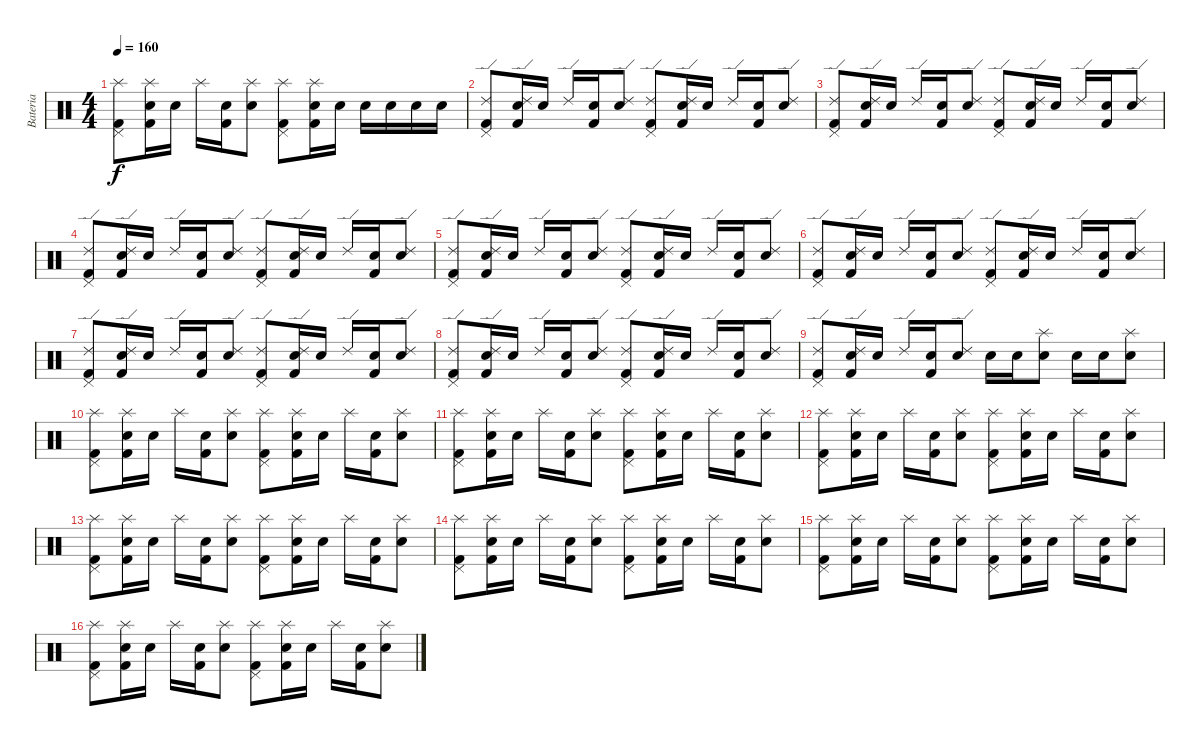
\track ("Bateria" "Bateria") {instrument percussion}
\staff {score}
\articulation defaults
\ts (4 4)
\tempo 160
\clef neutral
\ks c
("Splash (hit)" "Pedal Hi-Hat (hit)" "Kick (hit) 2").8{dy f} ("Splash (hit)" "Snare (hit) 2" "Kick (hit) 2").16 "Snare (hit) 2".16 "Splash (hit)".16 ("Snare (hit) 2" "Kick (hit) 2").16 ("Splash (hit)" "Snare (hit) 2").8 ("Splash (hit)" "Pedal Hi-Hat (hit)" "Kick (hit) 2").8 ("Splash (hit)" "Snare (hit) 2" "Kick (hit) 2").16 "Snare (hit) 2".16 "Snare (hit) 2".16 "Snare (hit) 2".16 "Snare (hit) 2".16 "Snare (hit) 2".16 |
("Ride (edge) 2" "Pedal Hi-Hat (hit)" "Kick (hit) 2").8 ("Ride (edge) 2" "Snare (hit) 2" "Kick (hit) 2").16 "Snare (hit) 2".16 "Ride (edge) 2".16 ("Snare (hit) 2" "Kick (hit) 2").16 ("Ride (edge) 2" "Snare (hit) 2").8 ("Ride (edge) 2" "Pedal Hi-Hat (hit)" "Kick (hit) 2").8 ("Ride (edge) 2" "Snare (hit) 2" "Kick (hit) 2").16 "Snare (hit) 2".16 "Ride (edge) 2".16 ("Snare (hit) 2" "Kick (hit) 2").16 ("Ride (edge) 2" "Snare (hit) 2").8 |
("Ride (edge) 2" "Pedal Hi-Hat (hit)" "Kick (hit) 2").8 ("Ride (edge) 2" "Snare (hit) 2" "Kick (hit) 2").16 "Snare (hit) 2".16 "Ride (edge) 2".16 ("Snare (hit) 2" "Kick (hit) 2").16 ("Ride (edge) 2" "Snare (hit) 2").8 ("Ride (edge) 2" "Pedal Hi-Hat (hit)" "Kick (hit) 2").8 ("Ride (edge) 2" "Snare (hit) 2" "Kick (hit) 2").16 "Snare (hit) 2".16 "Ride (edge) 2".16 ("Snare (hit) 2" "Kick (hit) 2").16 ("Ride (edge) 2" "Snare (hit) 2").8 |
("Ride (edge) 2" "Pedal Hi-Hat (hit)" "Kick (hit) 2").8 ("Ride (edge) 2" "Snare (hit) 2" "Kick (hit) 2").16 "Snare (hit) 2".16 "Ride (edge) 2".16 ("Snare (hit) 2" "Kick (hit) 2").16 ("Ride (edge) 2" "Snare (hit) 2").8 ("Ride (edge) 2" "Pedal Hi-Hat (hit)" "Kick (hit) 2").8 ("Ride (edge) 2" "Snare (hit) 2" "Kick (hit) 2").16 "Snare (hit) 2".16 "Ride (edge) 2".16 ("Snare (hit) 2" "Kick (hit) 2").16 ("Ride (edge) 2" "Snare (hit) 2").8 |
("Ride (edge) 2" "Pedal Hi-Hat (hit)" "Kick (hit) 2").8 ("Ride (edge) 2" "Snare (hit) 2" "Kick (hit) 2").16 "Snare (hit) 2".16 "Ride (edge) 2".16 ("Snare (hit) 2" "Kick (hit) 2").16 ("Ride (edge) 2" "Snare (hit) 2").8 ("Ride (edge) 2" "Pedal Hi-Hat (hit)" "Kick (hit) 2").8 ("Ride (edge) 2" "Snare (hit) 2" "Kick (hit) 2").16 "Snare (hit) 2".16 "Ride (edge) 2".16 ("Snare (hit) 2" "Kick (hit) 2").16 ("Ride (edge) 2" "Snare (hit) 2").8 |
("Ride (edge) 2" "Pedal Hi-Hat (hit)" "Kick (hit) 2").8 ("Ride (edge) 2" "Snare (hit) 2" "Kick (hit) 2").16 "Snare (hit) 2".16 "Ride (edge) 2".16 ("Snare (hit) 2" "Kick (hit) 2").16 ("Ride (edge) 2" "Snare (hit) 2").8 ("Ride (edge) 2" "Pedal Hi-Hat (hit)" "Kick (hit) 2").8 ("Ride (edge) 2" "Snare (hit) 2" "Kick (hit) 2").16 "Snare (hit) 2".16 "Ride (edge) 2".16 ("Snare (hit) 2" "Kick (hit) 2").16 ("Ride (edge) 2" "Snare (hit) 2").8 |
("Ride (edge) 2" "Pedal Hi-Hat (hit)" "Kick (hit) 2").8 ("Ride (edge) 2" "Snare (hit) 2" "Kick (hit) 2").16 "Snare (hit) 2".16 "Ride (edge) 2".16 ("Snare (hit) 2" "Kick (hit) 2").16 ("Ride (edge) 2" "Snare (hit) 2").8 ("Ride (edge) 2" "Pedal Hi-Hat (hit)" "Kick (hit) 2").8 ("Ride (edge) 2" "Snare (hit) 2" "Kick (hit) 2").16 "Snare (hit) 2".16 "Ride (edge) 2".16 ("Snare (hit) 2" "Kick (hit) 2").16 ("Ride (edge) 2" "Snare (hit) 2").8 |
("Ride (edge) 2" "Pedal Hi-Hat (hit)" "Kick (hit) 2").8 ("Ride (edge) 2" "Snare (hit) 2" "Kick (hit) 2").16 "Snare (hit) 2".16 "Ride (edge) 2".16 ("Snare (hit) 2" "Kick (hit) 2").16 ("Ride (edge) 2" "Snare (hit) 2").8 ("Ride (edge) 2" "Pedal Hi-Hat (hit)" "Kick (hit) 2").8 ("Ride (edge) 2" "Snare (hit) 2" "Kick (hit) 2").16 "Snare (hit) 2".16 "Ride (edge) 2".16 ("Snare (hit) 2" "Kick (hit) 2").16 ("Ride (edge) 2" "Snare (hit) 2").8 |
("Ride (edge) 2" "Pedal Hi-Hat (hit)" "Kick (hit) 2").8 ("Ride (edge) 2" "Snare (hit) 2" "Kick (hit) 2").16 "Snare (hit) 2".16 "Ride (edge) 2".16 ("Snare (hit) 2" "Kick (hit) 2").16 ("Ride (edge) 2" "Snare (hit) 2").8 "Snare (hit) 2".16 "Snare (hit) 2".16 ("Splash (hit)" "Snare (hit) 2").8 "Snare (hit) 2".16 "Snare (hit) 2".16 ("Splash (hit)" "Snare (hit) 2").8 |
("Splash (hit)" "Pedal Hi-Hat (hit)" "Kick (hit) 2").8 ("Splash (hit)" "Snare (hit) 2" "Kick (hit) 2").16 "Snare (hit) 2".16 "Splash (hit)".16 ("Snare (hit) 2" "Kick (hit) 2").16 ("Splash (hit)" "Snare (hit) 2").8 ("Splash (hit)" "Pedal Hi-Hat (hit)" "Kick (hit) 2").8 ("Splash (hit)" "Snare (hit) 2" "Kick (hit) 2").16 "Snare (hit) 2".16 "Splash (hit)".16 ("Snare (hit) 2" "Kick (hit) 2").16 ("Splash (hit)" "Snare (hit) 2").8 |
("Splash (hit)" "Pedal Hi-Hat (hit)" "Kick (hit) 2").8 ("Splash (hit)" "Snare (hit) 2" "Kick (hit) 2").16 "Snare (hit) 2".16 "Splash (hit)".16 ("Snare (hit) 2" "Kick (hit) 2").16 ("Splash (hit)" "Snare (hit) 2").8 ("Splash (hit)" "Pedal Hi-Hat (hit)" "Kick (hit) 2").8 ("Splash (hit)" "Snare (hit) 2" "Kick (hit) 2").16 "Snare (hit) 2".16 "Splash (hit)".16 ("Snare (hit) 2" "Kick (hit) 2").16 ("Splash (hit)" "Snare (hit) 2").8 |
("Splash (hit)" "Pedal Hi-Hat (hit)" "Kick (hit) 2").8 ("Splash (hit)" "Snare (hit) 2" "Kick (hit) 2").16 "Snare (hit) 2".16 "Splash (hit)".16 ("Snare (hit) 2" "Kick (hit) 2").16 ("Splash (hit)" "Snare (hit) 2").8 ("Splash (hit)" "Pedal Hi-Hat (hit)" "Kick (hit) 2").8 ("Splash (hit)" "Snare (hit) 2" "Kick (hit) 2").16 "Snare (hit) 2".16 "Splash (hit)".16 ("Snare (hit) 2" "Kick (hit) 2").16 ("Splash (hit)" "Snare (hit) 2").8 |
("Splash (hit)" "Pedal Hi-Hat (hit)" "Kick (hit) 2").8 ("Splash (hit)" "Snare (hit) 2" "Kick (hit) 2").16 "Snare (hit) 2".16 "Splash (hit)".16 ("Snare (hit) 2" "Kick (hit) 2").16 ("Splash (hit)" "Snare (hit) 2").8 ("Splash (hit)" "Pedal Hi-Hat (hit)" "Kick (hit) 2").8 ("Splash (hit)" "Snare (hit) 2" "Kick (hit) 2").16 "Snare (hit) 2".16 "Splash (hit)".16 ("Snare (hit) 2" "Kick (hit) 2").16 ("Splash (hit)" "Snare (hit) 2").8 |
("Splash (hit)" "Pedal Hi-Hat (hit)" "Kick (hit) 2").8 ("Splash (hit)" "Snare (hit) 2" "Kick (hit) 2").16 "Snare (hit) 2".16 "Splash (hit)".16 ("Snare (hit) 2" "Kick (hit) 2").16 ("Splash (hit)" "Snare (hit) 2").8 ("Splash (hit)" "Pedal Hi-Hat (hit)" "Kick (hit) 2").8 ("Splash (hit)" "Snare (hit) 2" "Kick (hit) 2").16 "Snare (hit) 2".16 "Splash (hit)".16 ("Snare (hit) 2" "Kick (hit) 2").16 ("Splash (hit)" "Snare (hit) 2").8 |
("Splash (hit)" "Pedal Hi-Hat (hit)" "Kick (hit) 2").8 ("Splash (hit)" "Snare (hit) 2" "Kick (hit) 2").16 "Snare (hit) 2".16 "Splash (hit)".16 ("Snare (hit) 2" "Kick (hit) 2").16 ("Splash (hit)" "Snare (hit) 2").8 ("Splash (hit)" "Pedal Hi-Hat (hit)" "Kick (hit) 2").8 ("Splash (hit)" "Snare (hit) 2" "Kick (hit) 2").16 "Snare (hit) 2".16 "Splash (hit)".16 ("Snare (hit) 2" "Kick (hit) 2").16 ("Splash (hit)" "Snare (hit) 2").8 |
("Splash (hit)" "Pedal Hi-Hat (hit)" "Kick (hit) 2").8 ("Splash (hit)" "Snare (hit) 2" "Kick (hit) 2").16 "Snare (hit) 2".16 "Splash (hit)".16 ("Snare (hit) 2" "Kick (hit) 2").16 ("Splash (hit)" "Snare (hit) 2").8 ("Splash (hit)" "Pedal Hi-Hat (hit)" "Kick (hit) 2").8 ("Splash (hit)" "Snare (hit) 2" "Kick (hit) 2").16 "Snare (hit) 2".16 "Splash (hit)".16 ("Snare (hit) 2" "Kick (hit) 2").16 ("Splash (hit)" "Snare (hit) 2").8
